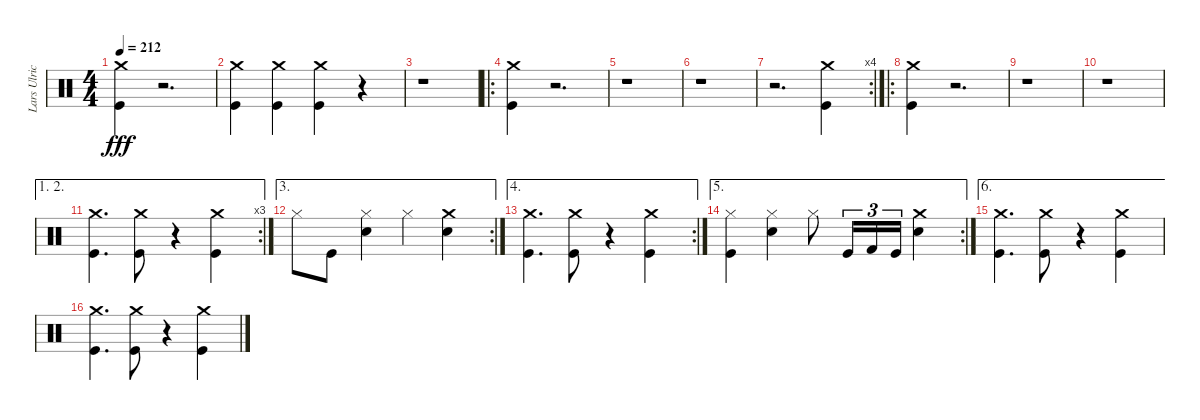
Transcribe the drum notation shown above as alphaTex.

\track ("Lars Ulrich" "Lars Ulric") {instrument percussion}
\staff {score}
\articulation defaults
\ts (4 4)
\tempo 212
\clef neutral
\ks c
("Crash medium (hit)" "Kick (hit)").4{dy fff} r.2{d} |
("Crash medium (hit)" "Kick (hit)").4 ("Crash medium (hit)" "Kick (hit)").4 ("Crash medium (hit)" "Kick (hit)").4 r.4 |
r.1 |
\ro
("Kick (hit)" "Crash medium (hit)").4 r.2{d} |
r.1 |
r.1 |
\rc 4
r.2{d} ("Kick (hit)" "Crash medium (hit)").4 |
\ro
("Kick (hit)" "Crash medium (hit)").4 r.2{d} |
r.1 |
r.1 |
\ae (1 2)
\rc 3
("Kick (hit)" "Crash medium (hit)").4{d} ("Kick (hit)" "Crash medium (hit)").8 r.4 ("Crash medium (hit)" "Kick (hit)").4 |
\ae 3
\rc 2 "Hi-Hat (closed)".8 "Kick (hit)".8
("Hi-Hat (closed)" "Snare (hit) 2").4 "Hi-Hat (closed)".4 ("Snare (hit) 2" "Crash medium (hit)").4 |
\ae 4
\rc 2
("Crash medium (hit)" "Kick (hit)").4{d} ("Crash medium (hit)" "Kick (hit)").8 r.4 ("Crash medium (hit)" "Kick (hit)").4 |
\ae 5
\rc 2
("Kick (hit)" "Hi-Hat (closed)").4 ("Snare (hit) 2" "Hi-Hat (closed)").4 "Hi-Hat (closed)".8 "Kick (hit)".16{tu (3 2)} "Kick (hit) 2".16{tu (3 2)} "Kick (hit)".16{tu (3 2)} ("Snare (hit) 2" "Crash medium (hit)").4 |
\ae 6
("Crash medium (hit)" "Kick (hit)").4{d} ("Crash medium (hit)" "Kick (hit)").8 r.4 ("Crash medium (hit)" "Kick (hit)").4 |
("Crash medium (hit)" "Kick (hit)").4{d} ("Crash medium (hit)" "Kick (hit)").8 r.4 ("Crash medium (hit)" "Kick (hit)").4
